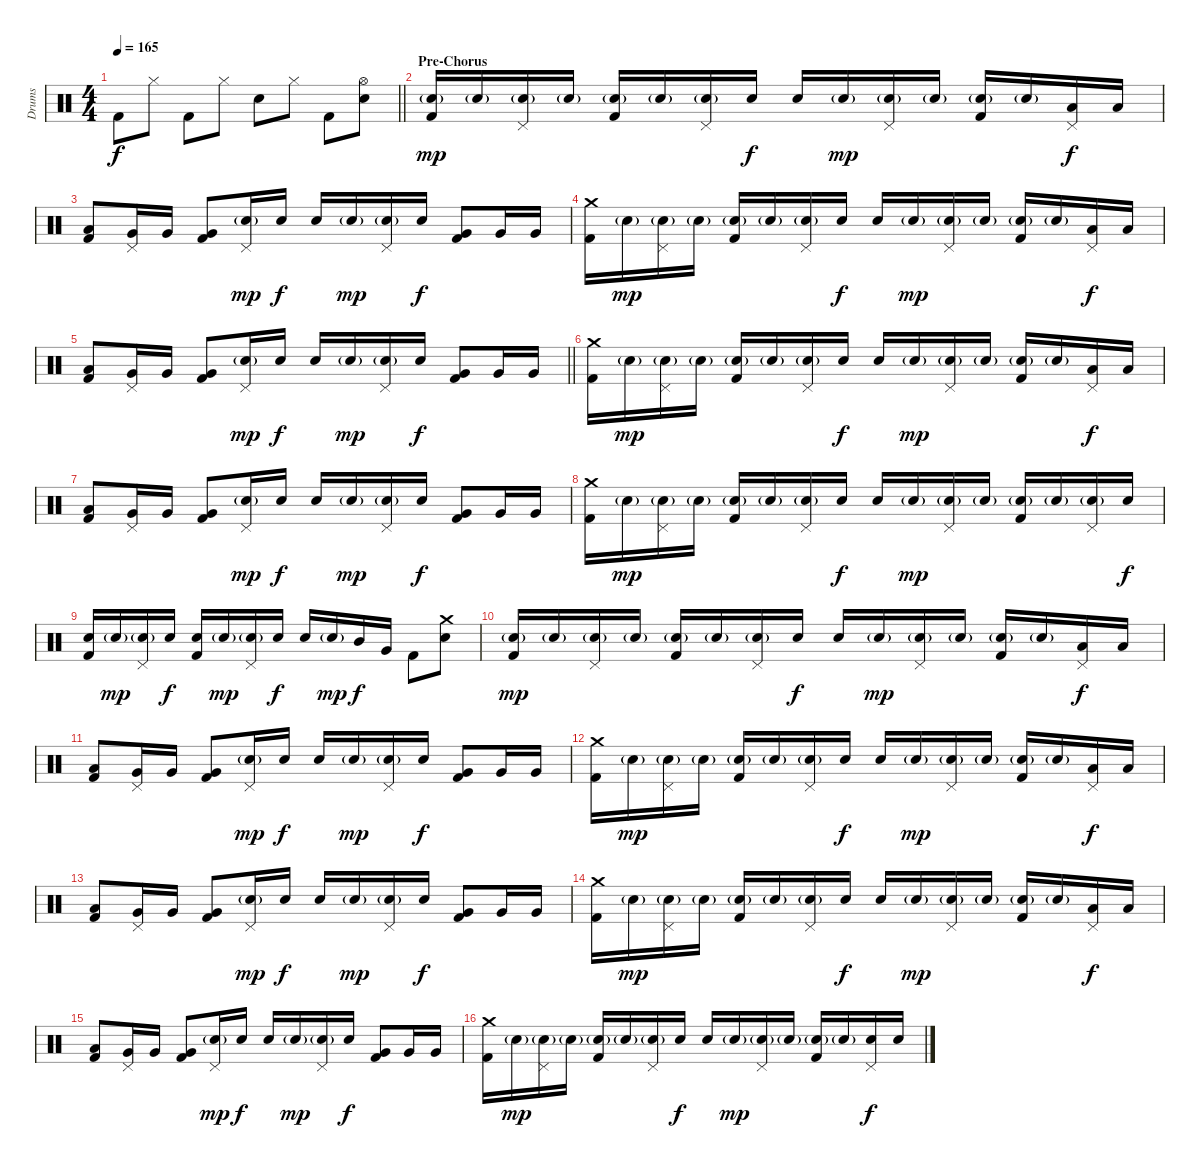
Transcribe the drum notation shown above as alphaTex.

\track ("Drums" "Drums") {instrument percussion}
\staff {score}
\articulation defaults
\ts (4 4)
\tempo 165
\clef neutral
\barLineRight lightlight
\ks c "Kick (hit) 2".8{dy f} "Hi-Hat (closed)".8 "Kick (hit) 2".8 "Hi-Hat (closed)".8 "Electric Snare (hit)".8 "Hi-Hat (closed)".8 "Kick (hit) 2".8
("Hi-Hat (open)" "Electric Snare (hit)").8 |
\section ("" "Pre-Chorus")
("Electric Snare (hit)"{g} "Kick (hit) 2").16{dy mp} "Electric Snare (hit)"{g}.16 ("Pedal Hi-Hat (hit)" "Electric Snare (hit)"{g}).16 "Electric Snare (hit)"{g}.16 ("Electric Snare (hit)"{g} "Kick (hit) 2").16 "Electric Snare (hit)"{g}.16 ("Pedal Hi-Hat (hit)" "Electric Snare (hit)"{g}).16 "Electric Snare (hit)".16{dy f} "Electric Snare (hit)".16 "Electric Snare (hit)"{g}.16{dy mp} ("Pedal Hi-Hat (hit)" "Electric Snare (hit)"{g}).16 "Electric Snare (hit)"{g}.16 ("Electric Snare (hit)"{g} "Kick (hit) 2").16 "Electric Snare (hit)"{g}.16 ("Pedal Hi-Hat (hit)" "Low Tom (hit)").16{dy f} "Low Tom (hit)".16 |
("Low Tom (hit)" "Kick (hit) 2").8 ("Pedal Hi-Hat (hit)" "Very Low Tom (hit)").16 "Very Low Tom (hit)".16 ("Very Low Tom (hit)" "Kick (hit) 2").8 ("Pedal Hi-Hat (hit)" "Electric Snare (hit)"{g}).16{dy mp} "Electric Snare (hit)".16{dy f} "Electric Snare (hit)".16 "Electric Snare (hit)"{g}.16{dy mp} ("Pedal Hi-Hat (hit)" "Electric Snare (hit)"{g}).16 "Electric Snare (hit)".16{dy f} ("Very Low Tom (hit)" "Kick (hit) 2").8 "Very Low Tom (hit)".16 "Very Low Tom (hit)".16 |
("Crash medium (hit)" "Kick (hit) 2").16 "Electric Snare (hit)"{g}.16{dy mp} ("Pedal Hi-Hat (hit)" "Electric Snare (hit)"{g}).16 "Electric Snare (hit)"{g}.16 ("Electric Snare (hit)"{g} "Kick (hit) 2").16 "Electric Snare (hit)"{g}.16 ("Pedal Hi-Hat (hit)" "Electric Snare (hit)"{g}).16 "Electric Snare (hit)".16{dy f} "Electric Snare (hit)".16 "Electric Snare (hit)"{g}.16{dy mp} ("Pedal Hi-Hat (hit)" "Electric Snare (hit)"{g}).16 "Electric Snare (hit)"{g}.16 ("Electric Snare (hit)"{g} "Kick (hit) 2").16 "Electric Snare (hit)"{g}.16 ("Pedal Hi-Hat (hit)" "Low Tom (hit)").16{dy f} "Low Tom (hit)".16 |
\barLineRight lightlight
("Low Tom (hit)" "Kick (hit) 2").8 ("Pedal Hi-Hat (hit)" "Very Low Tom (hit)").16 "Very Low Tom (hit)".16 ("Very Low Tom (hit)" "Kick (hit) 2").8 ("Pedal Hi-Hat (hit)" "Electric Snare (hit)"{g}).16{dy mp} "Electric Snare (hit)".16{dy f} "Electric Snare (hit)".16 "Electric Snare (hit)"{g}.16{dy mp} ("Pedal Hi-Hat (hit)" "Electric Snare (hit)"{g}).16 "Electric Snare (hit)".16{dy f} ("Very Low Tom (hit)" "Kick (hit) 2").8 "Very Low Tom (hit)".16 "Very Low Tom (hit)".16 |
("Crash medium (hit)" "Kick (hit) 2").16 "Electric Snare (hit)"{g}.16{dy mp} ("Pedal Hi-Hat (hit)" "Electric Snare (hit)"{g}).16 "Electric Snare (hit)"{g}.16 ("Electric Snare (hit)"{g} "Kick (hit) 2").16 "Electric Snare (hit)"{g}.16 ("Pedal Hi-Hat (hit)" "Electric Snare (hit)"{g}).16 "Electric Snare (hit)".16{dy f} "Electric Snare (hit)".16 "Electric Snare (hit)"{g}.16{dy mp} ("Pedal Hi-Hat (hit)" "Electric Snare (hit)"{g}).16 "Electric Snare (hit)"{g}.16 ("Electric Snare (hit)"{g} "Kick (hit) 2").16 "Electric Snare (hit)"{g}.16 ("Pedal Hi-Hat (hit)" "Low Tom (hit)").16{dy f} "Low Tom (hit)".16 |
("Low Tom (hit)" "Kick (hit) 2").8 ("Pedal Hi-Hat (hit)" "Very Low Tom (hit)").16 "Very Low Tom (hit)".16 ("Very Low Tom (hit)" "Kick (hit) 2").8 ("Pedal Hi-Hat (hit)" "Electric Snare (hit)"{g}).16{dy mp} "Electric Snare (hit)".16{dy f} "Electric Snare (hit)".16 "Electric Snare (hit)"{g}.16{dy mp} ("Pedal Hi-Hat (hit)" "Electric Snare (hit)"{g}).16 "Electric Snare (hit)".16{dy f} ("Very Low Tom (hit)" "Kick (hit) 2").8 "Very Low Tom (hit)".16 "Very Low Tom (hit)".16 |
("Crash medium (hit)" "Kick (hit) 2").16 "Electric Snare (hit)"{g}.16{dy mp} ("Pedal Hi-Hat (hit)" "Electric Snare (hit)"{g}).16 "Electric Snare (hit)"{g}.16 ("Electric Snare (hit)"{g} "Kick (hit) 2").16 "Electric Snare (hit)"{g}.16 ("Pedal Hi-Hat (hit)" "Electric Snare (hit)"{g}).16 "Electric Snare (hit)".16{dy f} "Electric Snare (hit)".16 "Electric Snare (hit)"{g}.16{dy mp} ("Pedal Hi-Hat (hit)" "Electric Snare (hit)"{g}).16 "Electric Snare (hit)"{g}.16 ("Electric Snare (hit)"{g} "Kick (hit) 2").16 "Electric Snare (hit)"{g}.16 ("Pedal Hi-Hat (hit)" "Electric Snare (hit)"{g}).16 "Electric Snare (hit)".16{dy f} |
("Electric Snare (hit)" "Kick (hit) 2").16 "Electric Snare (hit)"{g}.16{dy mp} ("Pedal Hi-Hat (hit)" "Electric Snare (hit)"{g}).16 "Electric Snare (hit)".16{dy f} ("Electric Snare (hit)" "Kick (hit) 2").16 "Electric Snare (hit)"{g}.16{dy mp} ("Pedal Hi-Hat (hit)" "Electric Snare (hit)"{g}).16 "Electric Snare (hit)".16{dy f} "Electric Snare (hit)".16 "Electric Snare (hit)"{g}.16{dy mp} "Mid Tom (hit)".16{dy f} "Very Low Tom (hit)".16 "Kick (hit) 2".8 ("Crash medium (hit)" "Electric Snare (hit)").8 |
("Electric Snare (hit)"{g} "Kick (hit) 2").16{dy mp} "Electric Snare (hit)"{g}.16 ("Pedal Hi-Hat (hit)" "Electric Snare (hit)"{g}).16 "Electric Snare (hit)"{g}.16 ("Electric Snare (hit)"{g} "Kick (hit) 2").16 "Electric Snare (hit)"{g}.16 ("Pedal Hi-Hat (hit)" "Electric Snare (hit)"{g}).16 "Electric Snare (hit)".16{dy f} "Electric Snare (hit)".16 "Electric Snare (hit)"{g}.16{dy mp} ("Pedal Hi-Hat (hit)" "Electric Snare (hit)"{g}).16 "Electric Snare (hit)"{g}.16 ("Electric Snare (hit)"{g} "Kick (hit) 2").16 "Electric Snare (hit)"{g}.16 ("Pedal Hi-Hat (hit)" "Low Tom (hit)").16{dy f} "Low Tom (hit)".16 |
("Low Tom (hit)" "Kick (hit) 2").8 ("Pedal Hi-Hat (hit)" "Very Low Tom (hit)").16 "Very Low Tom (hit)".16 ("Very Low Tom (hit)" "Kick (hit) 2").8 ("Pedal Hi-Hat (hit)" "Electric Snare (hit)"{g}).16{dy mp} "Electric Snare (hit)".16{dy f} "Electric Snare (hit)".16 "Electric Snare (hit)"{g}.16{dy mp} ("Pedal Hi-Hat (hit)" "Electric Snare (hit)"{g}).16 "Electric Snare (hit)".16{dy f} ("Very Low Tom (hit)" "Kick (hit) 2").8 "Very Low Tom (hit)".16 "Very Low Tom (hit)".16 |
("Crash medium (hit)" "Kick (hit) 2").16 "Electric Snare (hit)"{g}.16{dy mp} ("Pedal Hi-Hat (hit)" "Electric Snare (hit)"{g}).16 "Electric Snare (hit)"{g}.16 ("Electric Snare (hit)"{g} "Kick (hit) 2").16 "Electric Snare (hit)"{g}.16 ("Pedal Hi-Hat (hit)" "Electric Snare (hit)"{g}).16 "Electric Snare (hit)".16{dy f} "Electric Snare (hit)".16 "Electric Snare (hit)"{g}.16{dy mp} ("Pedal Hi-Hat (hit)" "Electric Snare (hit)"{g}).16 "Electric Snare (hit)"{g}.16 ("Electric Snare (hit)"{g} "Kick (hit) 2").16 "Electric Snare (hit)"{g}.16 ("Pedal Hi-Hat (hit)" "Low Tom (hit)").16{dy f} "Low Tom (hit)".16 |
("Low Tom (hit)" "Kick (hit) 2").8 ("Pedal Hi-Hat (hit)" "Very Low Tom (hit)").16 "Very Low Tom (hit)".16 ("Very Low Tom (hit)" "Kick (hit) 2").8 ("Pedal Hi-Hat (hit)" "Electric Snare (hit)"{g}).16{dy mp} "Electric Snare (hit)".16{dy f} "Electric Snare (hit)".16 "Electric Snare (hit)"{g}.16{dy mp} ("Pedal Hi-Hat (hit)" "Electric Snare (hit)"{g}).16 "Electric Snare (hit)".16{dy f} ("Very Low Tom (hit)" "Kick (hit) 2").8 "Very Low Tom (hit)".16 "Very Low Tom (hit)".16 |
("Crash medium (hit)" "Kick (hit) 2").16 "Electric Snare (hit)"{g}.16{dy mp} ("Pedal Hi-Hat (hit)" "Electric Snare (hit)"{g}).16 "Electric Snare (hit)"{g}.16 ("Electric Snare (hit)"{g} "Kick (hit) 2").16 "Electric Snare (hit)"{g}.16 ("Pedal Hi-Hat (hit)" "Electric Snare (hit)"{g}).16 "Electric Snare (hit)".16{dy f} "Electric Snare (hit)".16 "Electric Snare (hit)"{g}.16{dy mp} ("Pedal Hi-Hat (hit)" "Electric Snare (hit)"{g}).16 "Electric Snare (hit)"{g}.16 ("Electric Snare (hit)"{g} "Kick (hit) 2").16 "Electric Snare (hit)"{g}.16 ("Pedal Hi-Hat (hit)" "Low Tom (hit)").16{dy f} "Low Tom (hit)".16 |
("Low Tom (hit)" "Kick (hit) 2").8 ("Pedal Hi-Hat (hit)" "Very Low Tom (hit)").16 "Very Low Tom (hit)".16 ("Very Low Tom (hit)" "Kick (hit) 2").8 ("Pedal Hi-Hat (hit)" "Electric Snare (hit)"{g}).16{dy mp} "Electric Snare (hit)".16{dy f} "Electric Snare (hit)".16 "Electric Snare (hit)"{g}.16{dy mp} ("Pedal Hi-Hat (hit)" "Electric Snare (hit)"{g}).16 "Electric Snare (hit)".16{dy f} ("Very Low Tom (hit)" "Kick (hit) 2").8 "Very Low Tom (hit)".16 "Very Low Tom (hit)".16 |
("Crash medium (hit)" "Kick (hit) 2").16 "Electric Snare (hit)"{g}.16{dy mp} ("Pedal Hi-Hat (hit)" "Electric Snare (hit)"{g}).16 "Electric Snare (hit)"{g}.16 ("Electric Snare (hit)"{g} "Kick (hit) 2").16 "Electric Snare (hit)"{g}.16 ("Pedal Hi-Hat (hit)" "Electric Snare (hit)"{g}).16 "Electric Snare (hit)".16{dy f} "Electric Snare (hit)".16 "Electric Snare (hit)"{g}.16{dy mp} ("Pedal Hi-Hat (hit)" "Electric Snare (hit)"{g}).16 "Electric Snare (hit)"{g}.16 ("Electric Snare (hit)"{g} "Kick (hit) 2").16 "Electric Snare (hit)"{g}.16 ("Pedal Hi-Hat (hit)" "Electric Snare (hit)").16{dy f} "Electric Snare (hit)".16
